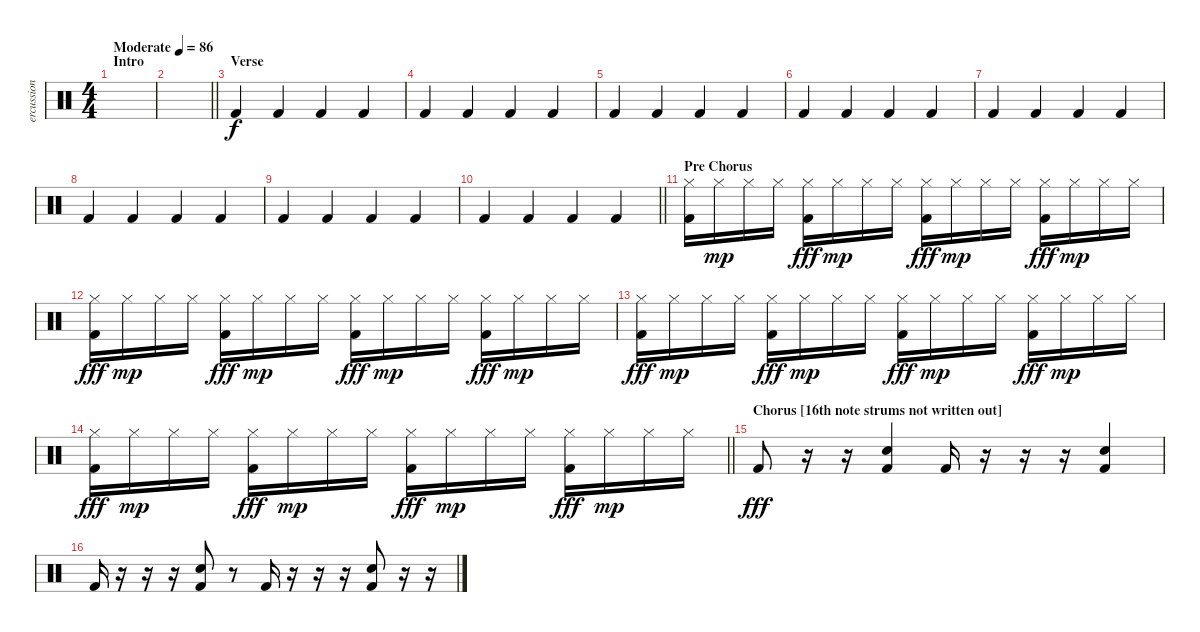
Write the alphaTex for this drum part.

\track ("ercussion" "ercussion") {instrument percussion}
\staff {score}
\articulation defaults
\ts (4 4)
\section ("" "Intro")
\tempo (86 "Moderate")
\clef neutral
\ks c
|
\barLineRight lightlight
|
\section ("" "Verse")
"Kick (hit) 2".4 "Kick (hit) 2".4 "Kick (hit) 2".4 "Kick (hit) 2".4 |
"Kick (hit) 2".4 "Kick (hit) 2".4 "Kick (hit) 2".4 "Kick (hit) 2".4 |
"Kick (hit) 2".4 "Kick (hit) 2".4 "Kick (hit) 2".4 "Kick (hit) 2".4 |
"Kick (hit) 2".4 "Kick (hit) 2".4 "Kick (hit) 2".4 "Kick (hit) 2".4 |
"Kick (hit) 2".4 "Kick (hit) 2".4 "Kick (hit) 2".4 "Kick (hit) 2".4 |
"Kick (hit) 2".4 "Kick (hit) 2".4 "Kick (hit) 2".4 "Kick (hit) 2".4 |
"Kick (hit) 2".4 "Kick (hit) 2".4 "Kick (hit) 2".4 "Kick (hit) 2".4 |
\barLineRight lightlight "Kick (hit) 2".4 "Kick (hit) 2".4 "Kick (hit) 2".4 "Kick (hit) 2".4
|
\section ("" "Pre Chorus")
("Hi-Hat (closed)" "Kick (hit) 2").16 "Hi-Hat (closed)".16{dy mp} "Hi-Hat (closed)".16 "Hi-Hat (closed)".16 ("Hi-Hat (closed)" "Kick (hit) 2").16{dy fff} "Hi-Hat (closed)".16{dy mp} "Hi-Hat (closed)".16 "Hi-Hat (closed)".16 ("Hi-Hat (closed)" "Kick (hit) 2").16{dy fff} "Hi-Hat (closed)".16{dy mp} "Hi-Hat (closed)".16 "Hi-Hat (closed)".16 ("Hi-Hat (closed)" "Kick (hit) 2").16{dy fff} "Hi-Hat (closed)".16{dy mp} "Hi-Hat (closed)".16 "Hi-Hat (closed)".16 |
("Hi-Hat (closed)" "Kick (hit) 2").16{dy fff} "Hi-Hat (closed)".16{dy mp} "Hi-Hat (closed)".16 "Hi-Hat (closed)".16 ("Hi-Hat (closed)" "Kick (hit) 2").16{dy fff} "Hi-Hat (closed)".16{dy mp} "Hi-Hat (closed)".16 "Hi-Hat (closed)".16 ("Hi-Hat (closed)" "Kick (hit) 2").16{dy fff} "Hi-Hat (closed)".16{dy mp} "Hi-Hat (closed)".16 "Hi-Hat (closed)".16 ("Hi-Hat (closed)" "Kick (hit) 2").16{dy fff} "Hi-Hat (closed)".16{dy mp} "Hi-Hat (closed)".16 "Hi-Hat (closed)".16 |
("Hi-Hat (closed)" "Kick (hit) 2").16{dy fff} "Hi-Hat (closed)".16{dy mp} "Hi-Hat (closed)".16 "Hi-Hat (closed)".16 ("Hi-Hat (closed)" "Kick (hit) 2").16{dy fff} "Hi-Hat (closed)".16{dy mp} "Hi-Hat (closed)".16 "Hi-Hat (closed)".16 ("Hi-Hat (closed)" "Kick (hit) 2").16{dy fff} "Hi-Hat (closed)".16{dy mp} "Hi-Hat (closed)".16 "Hi-Hat (closed)".16 ("Hi-Hat (closed)" "Kick (hit) 2").16{dy fff} "Hi-Hat (closed)".16{dy mp} "Hi-Hat (closed)".16 "Hi-Hat (closed)".16 |
\barLineRight lightlight
("Hi-Hat (closed)" "Kick (hit) 2").16{dy fff} "Hi-Hat (closed)".16{dy mp} "Hi-Hat (closed)".16 "Hi-Hat (closed)".16 ("Hi-Hat (closed)" "Kick (hit) 2").16{dy fff} "Hi-Hat (closed)".16{dy mp} "Hi-Hat (closed)".16 "Hi-Hat (closed)".16 ("Hi-Hat (closed)" "Kick (hit) 2").16{dy fff} "Hi-Hat (closed)".16{dy mp} "Hi-Hat (closed)".16 "Hi-Hat (closed)".16 ("Hi-Hat (closed)" "Kick (hit) 2").16{dy fff} "Hi-Hat (closed)".16{dy mp} "Hi-Hat (closed)".16 "Hi-Hat (closed)".16 |
\section ("" "Chorus [16th note strums not written out]")
"Kick (hit) 2".8{dy fff} r.16 r.16 ("Snare (hit) 2" "Kick (hit) 2").4 "Kick (hit) 2".16 r.16 r.16 r.16 ("Snare (hit) 2" "Kick (hit) 2").4 |
"Kick (hit) 2".16 r.16 r.16 r.16 ("Snare (hit) 2" "Kick (hit) 2").8 r.8 "Kick (hit) 2".16 r.16 r.16 r.16 ("Snare (hit) 2" "Kick (hit) 2").8 r.16 r.16
